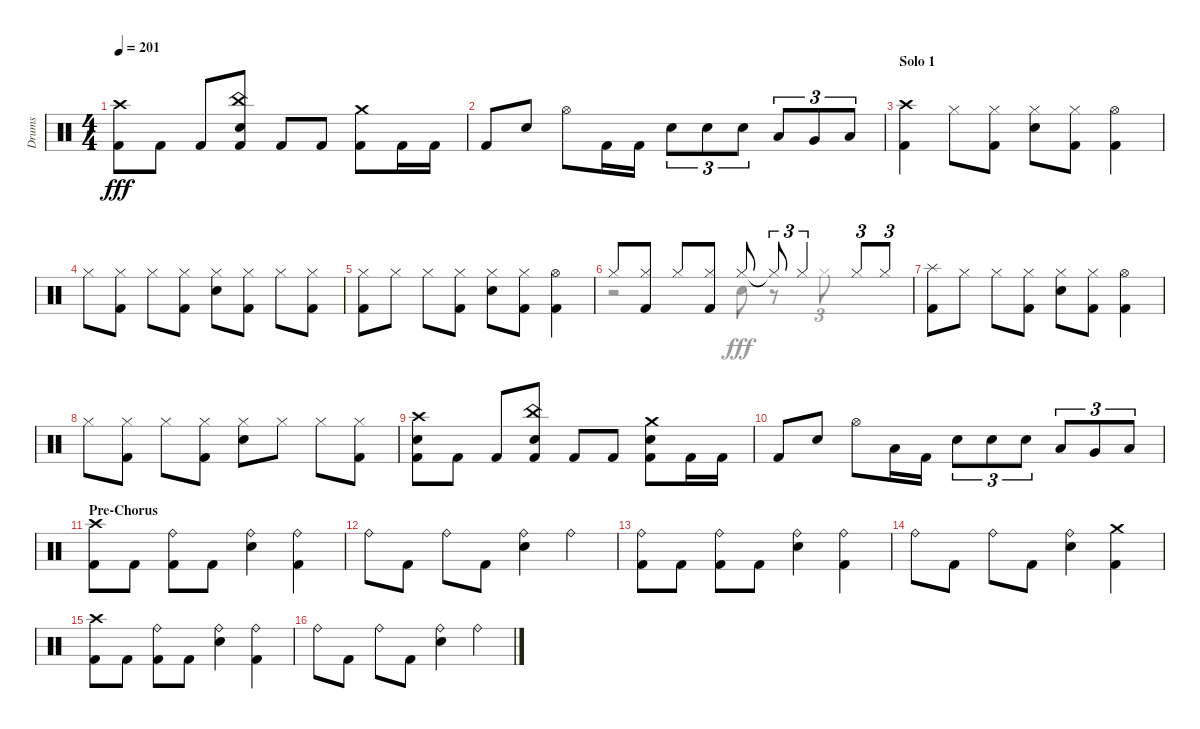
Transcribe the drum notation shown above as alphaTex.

\track ("Drums" "Drums") {instrument percussion}
\staff {score}
\articulation defaults
\voice
\ts (4 4)
\tempo 201
\clef neutral
\ks aminor
("Crash high (hit)" "Kick (hit) 2").8{dy fff} "Kick (hit) 2".8 "Kick (hit) 2".8 ("China (hit)" "Kick (hit) 2" "Snare (hit) 2").8 "Kick (hit) 2".8 "Kick (hit) 2".8 ("Crash medium (hit)" "Kick (hit) 2").8 "Kick (hit) 2".16 "Kick (hit) 2".16 |
"Kick (hit) 2".8 "Snare (hit) 2".8 "Hi-Hat (open)".8 "Kick (hit) 2".16 "Kick (hit) 2".16 "Snare (hit) 2".8{tu (3 2)} "Snare (hit) 2".8{tu (3 2)} "Snare (hit) 2".8{tu (3 2)} "Low Tom (hit)".8{tu (3 2)} "Very Low Tom (hit)".8{tu (3 2)} "Low Floor Tom (hit)".8{tu (3 2)} |
\section ("" "Solo 1")
("Kick (hit) 2" "Crash high (hit)").4 "Hi-Hat (closed)".8 ("Kick (hit) 2" "Hi-Hat (closed)").8 ("Hi-Hat (closed)" "Snare (hit) 2").8 ("Hi-Hat (closed)" "Kick (hit) 2").8 ("Kick (hit) 2" "Hi-Hat (open)").4 |
"Hi-Hat (closed)".8 ("Kick (hit) 2" "Hi-Hat (closed)").8 "Hi-Hat (closed)".8 ("Kick (hit) 2" "Hi-Hat (closed)").8 ("Snare (hit) 2" "Hi-Hat (closed)").8 ("Hi-Hat (closed)" "Kick (hit) 2").8 "Hi-Hat (closed)".8 ("Kick (hit) 2" "Hi-Hat (closed)").8 |
("Kick (hit) 2" "Hi-Hat (closed)").8 "Hi-Hat (closed)".8 "Hi-Hat (closed)".8 ("Kick (hit) 2" "Hi-Hat (closed)").8 ("Snare (hit) 2" "Hi-Hat (closed)").8 ("Hi-Hat (closed)" "Kick (hit) 2").8 ("Hi-Hat (open)" "Kick (hit) 2").4 |
"Hi-Hat (closed)".8 ("Hi-Hat (closed)" "Kick (hit) 2").8 "Hi-Hat (closed)".8 ("Kick (hit) 2" "Hi-Hat (closed)").8 "Hi-Hat (closed)".8 "Hi-Hat (closed)"{t}.8{tu (3 2)} "Hi-Hat (closed)".4{tu (3 2)} "Hi-Hat (closed)".8{tu (3 2)} "Hi-Hat (closed)".8{tu (3 2)} |
("Kick (hit) 2" "Splash (hit)").8 "Hi-Hat (closed)".8 "Hi-Hat (closed)".8 ("Hi-Hat (closed)" "Kick (hit) 2").8 ("Snare (hit) 2" "Hi-Hat (closed)").8 ("Kick (hit) 2" "Hi-Hat (closed)").8 ("Kick (hit) 2" "Hi-Hat (open)").4 |
"Hi-Hat (closed)".8 ("Kick (hit) 2" "Hi-Hat (closed)").8 "Hi-Hat (closed)".8 ("Kick (hit) 2" "Hi-Hat (closed)").8 ("Snare (hit) 2" "Hi-Hat (closed)").8 "Hi-Hat (closed)".8 "Hi-Hat (closed)".8 ("Hi-Hat (closed)" "Kick (hit) 2").8 |
("Snare (hit) 2" "Kick (hit) 2" "Crash high (hit)").8 "Kick (hit) 2".8 "Kick (hit) 2".8 ("China (hit)" "Snare (hit) 2" "Kick (hit) 2").8 "Kick (hit) 2".8 "Kick (hit) 2".8 ("Snare (hit) 2" "Crash medium (hit)" "Kick (hit) 2").8 "Kick (hit) 2".16 "Kick (hit) 2".16 |
"Kick (hit) 2".8 "Snare (hit) 2".8 "Hi-Hat (open)".8 "Low Tom (hit)".16 "Kick (hit) 2".16 "Snare (hit) 2".8{tu (3 2)} "Snare (hit) 2".8{tu (3 2)} "Snare (hit) 2".8{tu (3 2)} "Low Tom (hit)".8{tu (3 2)} "Very Low Tom (hit)".8{tu (3 2)} "Low Floor Tom (hit)".8{tu (3 2)} |
\section ("" "Pre-Chorus")
("Crash high (hit)" "Kick (hit) 2").8 "Kick (hit) 2".8 ("Kick (hit) 2" "Ride (bell)").8 "Kick (hit) 2".8 ("Snare (hit) 2" "Ride (bell)").4 ("Ride (bell)" "Kick (hit) 2").4 |
"Ride (bell)".8 "Kick (hit) 2".8 "Ride (bell)".8 "Kick (hit) 2".8 ("Ride (bell)" "Snare (hit) 2").4 "Ride (bell)".4 |
("Ride (bell)" "Kick (hit) 2").8 "Kick (hit) 2".8 ("Ride (bell)" "Kick (hit) 2").8 "Kick (hit) 2".8 ("Snare (hit) 2" "Ride (bell)").4 ("Ride (bell)" "Kick (hit) 2").4 |
"Ride (bell)".8 "Kick (hit) 2".8 "Ride (bell)".8 "Kick (hit) 2".8 ("Ride (bell)" "Snare (hit) 2").4 ("Kick (hit) 2" "Crash medium (hit)").4 |
("Crash high (hit)" "Kick (hit) 2").8 "Kick (hit) 2".8 ("Ride (bell)" "Kick (hit) 2").8 "Kick (hit) 2".8 ("Snare (hit) 2" "Ride (bell)").4 ("Kick (hit) 2" "Ride (bell)").4 |
"Ride (bell)".8 "Kick (hit) 2".8 "Ride (bell)".8 "Kick (hit) 2".8 ("Ride (bell)" "Snare (hit) 2").4 "Ride (bell)".4
\voice
\clef neutral
\ottava regular
\simile none
\ks aminor
|
|
|
|
|
r.2 "Snare (hit) 2".8 r.8 "Hi-Hat (closed)".8{tu (3 2)} |
|
|
|
|
|
|
|
|
|
